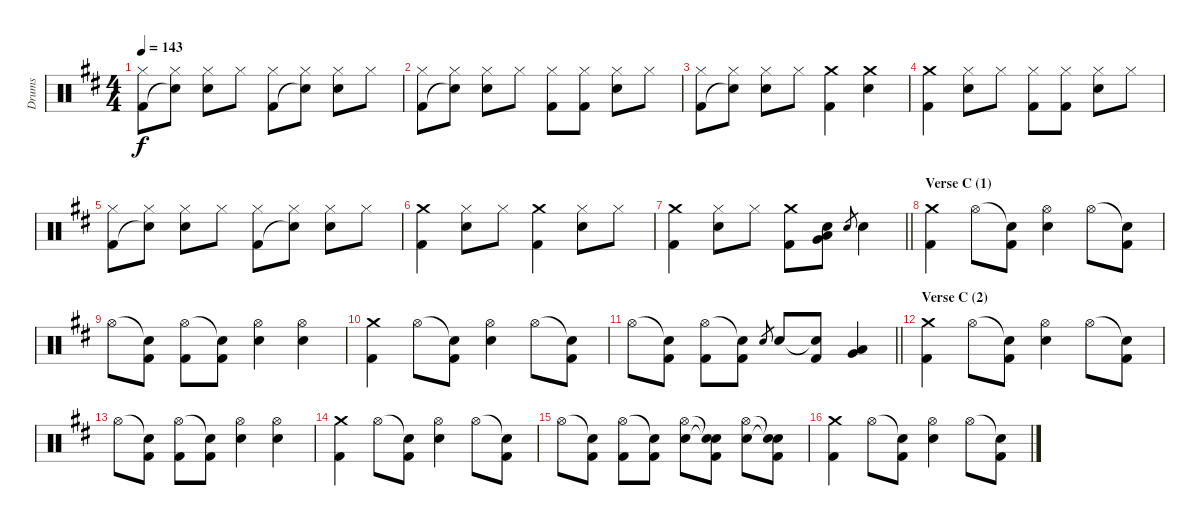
\track ("Drums" "Drums") {instrument percussion}
\staff {score}
\articulation defaults
\ts (4 4)
\tempo 143
\clef neutral
\ks d
("Hi-Hat (closed)" "Kick (hit) 2").8{dy f} ("Hi-Hat (closed)" "Snare (hit)"{t}).8 ("Hi-Hat (closed)" "Electric Snare (hit)").8 "Hi-Hat (closed)".8 ("Hi-Hat (closed)" "Kick (hit) 2").8 ("Hi-Hat (closed)" "Snare (hit)"{t}).8 ("Hi-Hat (closed)" "Electric Snare (hit)").8 "Hi-Hat (closed)".8 |
("Hi-Hat (closed)" "Kick (hit) 2").8 ("Hi-Hat (closed)" "Snare (hit)"{t}).8 ("Hi-Hat (closed)" "Electric Snare (hit)").8 "Hi-Hat (closed)".8 ("Hi-Hat (closed)" "Kick (hit) 2").8 ("Hi-Hat (closed)" "Kick (hit) 2").8 ("Hi-Hat (closed)" "Electric Snare (hit)").8 "Hi-Hat (closed)".8 |
("Hi-Hat (closed)" "Kick (hit) 2").8 ("Hi-Hat (closed)" "Snare (hit)"{t}).8 ("Hi-Hat (closed)" "Electric Snare (hit)").8 "Hi-Hat (closed)".8 ("Crash medium (hit)" "Kick (hit) 2").4 ("Crash medium (hit)" "Electric Snare (hit)").4 |
("Crash medium (hit)" "Kick (hit) 2").4 ("Hi-Hat (closed)" "Electric Snare (hit)").8 "Hi-Hat (closed)".8 ("Hi-Hat (closed)" "Kick (hit) 2").8 ("Hi-Hat (closed)" "Kick (hit) 2").8 ("Hi-Hat (closed)" "Electric Snare (hit)").8 "Hi-Hat (closed)".8 |
("Hi-Hat (closed)" "Kick (hit) 2").8 ("Hi-Hat (closed)" "Snare (hit)"{t}).8 ("Hi-Hat (closed)" "Electric Snare (hit)").8 "Hi-Hat (closed)".8 ("Hi-Hat (closed)" "Kick (hit) 2").8 ("Hi-Hat (closed)" "Snare (hit)"{t}).8 ("Hi-Hat (closed)" "Electric Snare (hit)").8 "Hi-Hat (closed)".8 |
("Crash medium (hit)" "Kick (hit) 2").4 ("Hi-Hat (closed)" "Electric Snare (hit)").8 "Hi-Hat (closed)".8 ("Crash medium (hit)" "Kick (hit) 2").4 ("Hi-Hat (closed)" "Electric Snare (hit)").8 "Hi-Hat (closed)".8 |
\barLineRight lightlight
("Crash medium (hit)" "Kick (hit) 2").4 ("Hi-Hat (closed)" "Electric Snare (hit)").8 "Hi-Hat (closed)".8 ("Crash medium (hit)" "Kick (hit) 2").8 ("Very Low Tom (hit)" "Low Floor Tom (hit)" "Snare (hit)").8 "Electric Snare (hit)".8{gr} "Electric Snare (hit)".4 |
\section ("" "Verse C (1)")
("Crash medium (hit)" "Kick (hit) 2").4 "Hi-Hat (open)".8 ("Snare (hit)"{t} "Kick (hit) 2").8 ("Hi-Hat (open)" "Electric Snare (hit)").4 "Hi-Hat (open)".8 ("Snare (hit)"{t} "Kick (hit) 2").8 |
"Hi-Hat (open)".8 ("Snare (hit)"{t} "Kick (hit) 2").8 ("Hi-Hat (open)" "Kick (hit) 2").8 ("Snare (hit)"{t} "Kick (hit) 2").8 ("Hi-Hat (open)" "Electric Snare (hit)").4 ("Hi-Hat (open)" "Electric Snare (hit)").4 |
("Crash medium (hit)" "Kick (hit) 2").4 "Hi-Hat (open)".8 ("Snare (hit)"{t} "Kick (hit) 2").8 ("Hi-Hat (open)" "Electric Snare (hit)").4 "Hi-Hat (open)".8 ("Snare (hit)"{t} "Kick (hit) 2").8 |
\barLineRight lightlight "Hi-Hat (open)".8
("Snare (hit)"{t} "Kick (hit) 2").8 ("Hi-Hat (open)" "Kick (hit) 2").8 ("Snare (hit)"{t} "Kick (hit) 2").8 "Electric Snare (hit)".8{gr} "Electric Snare (hit)".8 ("Snare (hit)"{t} "Kick (hit) 2").8 ("Very Low Tom (hit)" "Low Floor Tom (hit)").4 |
\section ("" "Verse C (2)")
("Crash medium (hit)" "Kick (hit) 2").4 "Hi-Hat (open)".8 ("Snare (hit)"{t} "Kick (hit) 2").8 ("Hi-Hat (open)" "Electric Snare (hit)").4 "Hi-Hat (open)".8 ("Snare (hit)"{t} "Kick (hit) 2").8 |
"Hi-Hat (open)".8 ("Snare (hit)"{t} "Kick (hit) 2").8 ("Hi-Hat (open)" "Kick (hit) 2").8 ("Snare (hit)"{t} "Kick (hit) 2").8 ("Hi-Hat (open)" "Electric Snare (hit)").4 ("Hi-Hat (open)" "Electric Snare (hit)").4 |
("Crash medium (hit)" "Kick (hit) 2").4 "Hi-Hat (open)".8 ("Snare (hit)"{t} "Kick (hit) 2").8 ("Hi-Hat (open)" "Electric Snare (hit)").4 "Hi-Hat (open)".8 ("Snare (hit)"{t} "Kick (hit) 2").8 |
"Hi-Hat (open)".8 ("Snare (hit)"{t} "Kick (hit) 2").8 ("Hi-Hat (open)" "Kick (hit) 2").8 ("Snare (hit)"{t} "Kick (hit) 2").8 ("Hi-Hat (open)" "Electric Snare (hit)").8 ("Snare (hit)"{t} "Snare (hit)"{t} "Kick (hit) 2").8 ("Hi-Hat (open)" "Electric Snare (hit)").8 ("Snare (hit)"{t} "Snare (hit)"{t} "Kick (hit) 2").8 |
("Crash medium (hit)" "Kick (hit) 2").4 "Hi-Hat (open)".8 ("Snare (hit)"{t} "Kick (hit) 2").8 ("Hi-Hat (open)" "Electric Snare (hit)").4 "Hi-Hat (open)".8 ("Snare (hit)"{t} "Kick (hit) 2").8
